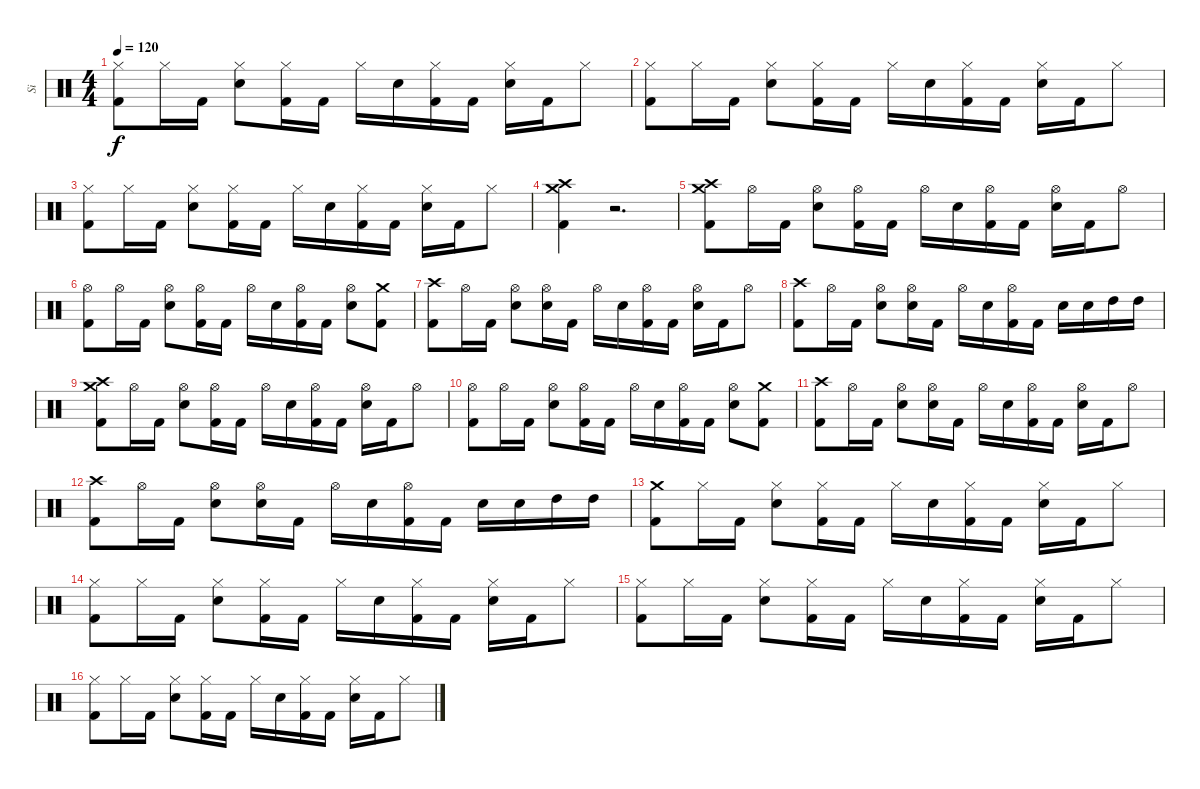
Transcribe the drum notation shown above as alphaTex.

\track ("Si" "Si") {instrument percussion}
\staff {score}
\articulation defaults
\ts (4 4)
\tempo 120
\clef neutral
\ks c
("Hi-Hat (closed)" "Kick (hit) 2").8{dy f} "Hi-Hat (closed)".16 "Kick (hit) 2".16 ("Hi-Hat (closed)" "Electric Snare (hit)").8 ("Hi-Hat (closed)" "Kick (hit) 2").16 "Kick (hit) 2".16 "Hi-Hat (closed)".16 "Electric Snare (hit)".16 ("Hi-Hat (closed)" "Kick (hit) 2").16 "Kick (hit) 2".16 ("Hi-Hat (closed)" "Electric Snare (hit)").16 "Kick (hit) 2".16 "Hi-Hat (closed)".8 |
("Hi-Hat (closed)" "Kick (hit) 2").8 "Hi-Hat (closed)".16 "Kick (hit) 2".16 ("Hi-Hat (closed)" "Electric Snare (hit)").8 ("Hi-Hat (closed)" "Kick (hit) 2").16 "Kick (hit) 2".16 "Hi-Hat (closed)".16 "Electric Snare (hit)".16 ("Hi-Hat (closed)" "Kick (hit) 2").16 "Kick (hit) 2".16 ("Hi-Hat (closed)" "Electric Snare (hit)").16 "Kick (hit) 2".16 "Hi-Hat (closed)".8 |
("Hi-Hat (closed)" "Kick (hit) 2").8 "Hi-Hat (closed)".16 "Kick (hit) 2".16 ("Hi-Hat (closed)" "Electric Snare (hit)").8 ("Hi-Hat (closed)" "Kick (hit) 2").16 "Kick (hit) 2".16 "Hi-Hat (closed)".16 "Electric Snare (hit)".16 ("Hi-Hat (closed)" "Kick (hit) 2").16 "Kick (hit) 2".16 ("Hi-Hat (closed)" "Electric Snare (hit)").16 "Kick (hit) 2".16 "Hi-Hat (closed)".8 |
("Crash high (hit)" "Crash medium (hit)" "Kick (hit) 2").4 r.2{d} |
("Crash high (hit)" "Crash medium (hit)" "Kick (hit) 2").8 "Hi-Hat (open)".16 "Kick (hit) 2".16 ("Hi-Hat (open)" "Electric Snare (hit)").8 ("Hi-Hat (open)" "Kick (hit) 2").16 "Kick (hit) 2".16 "Hi-Hat (open)".16 "Electric Snare (hit)".16 ("Hi-Hat (open)" "Kick (hit) 2").16 "Kick (hit) 2".16 ("Hi-Hat (open)" "Electric Snare (hit)").16 "Kick (hit) 2".16 "Hi-Hat (open)".8 |
("Hi-Hat (open)" "Kick (hit) 2").8 "Hi-Hat (open)".16 "Kick (hit) 2".16 ("Hi-Hat (open)" "Electric Snare (hit)").8 ("Hi-Hat (open)" "Kick (hit) 2").16 "Kick (hit) 2".16 "Hi-Hat (open)".16 "Electric Snare (hit)".16 ("Hi-Hat (open)" "Kick (hit) 2").16 "Kick (hit) 2".16 ("Hi-Hat (open)" "Electric Snare (hit)").8 ("Crash medium (hit)" "Kick (hit) 2").8 |
("Crash high (hit)" "Kick (hit) 2").8 "Hi-Hat (open)".16 "Kick (hit) 2".16 ("Hi-Hat (open)" "Electric Snare (hit)").8 ("Hi-Hat (open)" "Electric Snare (hit)").16 "Kick (hit) 2".16 "Hi-Hat (open)".16 "Electric Snare (hit)".16 ("Hi-Hat (open)" "Kick (hit) 2").16 "Kick (hit) 2".16 ("Hi-Hat (open)" "Electric Snare (hit)").16 "Kick (hit) 2".16 "Hi-Hat (open)".8 |
("Crash high (hit)" "Kick (hit) 2").8 "Hi-Hat (open)".16 "Kick (hit) 2".16 ("Hi-Hat (open)" "Electric Snare (hit)").8 ("Hi-Hat (open)" "Electric Snare (hit)").16 "Kick (hit) 2".16 "Hi-Hat (open)".16 "Electric Snare (hit)".16 ("Hi-Hat (open)" "Kick (hit) 2").16 "Kick (hit) 2".16 "Electric Snare (hit)".16 "Electric Snare (hit)".16 "High Tom (hit)".16 "High Tom (hit)".16 |
("Crash high (hit)" "Crash medium (hit)" "Kick (hit) 2").8 "Hi-Hat (open)".16 "Kick (hit) 2".16 ("Hi-Hat (open)" "Electric Snare (hit)").8 ("Hi-Hat (open)" "Kick (hit) 2").16 "Kick (hit) 2".16 "Hi-Hat (open)".16 "Electric Snare (hit)".16 ("Hi-Hat (open)" "Kick (hit) 2").16 "Kick (hit) 2".16 ("Hi-Hat (open)" "Electric Snare (hit)").16 "Kick (hit) 2".16 "Hi-Hat (open)".8 |
("Hi-Hat (open)" "Kick (hit) 2").8 "Hi-Hat (open)".16 "Kick (hit) 2".16 ("Hi-Hat (open)" "Electric Snare (hit)").8 ("Hi-Hat (open)" "Kick (hit) 2").16 "Kick (hit) 2".16 "Hi-Hat (open)".16 "Electric Snare (hit)".16 ("Hi-Hat (open)" "Kick (hit) 2").16 "Kick (hit) 2".16 ("Hi-Hat (open)" "Electric Snare (hit)").8 ("Crash medium (hit)" "Kick (hit) 2").8 |
("Crash high (hit)" "Kick (hit) 2").8 "Hi-Hat (open)".16 "Kick (hit) 2".16 ("Hi-Hat (open)" "Electric Snare (hit)").8 ("Hi-Hat (open)" "Electric Snare (hit)").16 "Kick (hit) 2".16 "Hi-Hat (open)".16 "Electric Snare (hit)".16 ("Hi-Hat (open)" "Kick (hit) 2").16 "Kick (hit) 2".16 ("Hi-Hat (open)" "Electric Snare (hit)").16 "Kick (hit) 2".16 "Hi-Hat (open)".8 |
("Crash high (hit)" "Kick (hit) 2").8 "Hi-Hat (open)".16 "Kick (hit) 2".16 ("Hi-Hat (open)" "Electric Snare (hit)").8 ("Hi-Hat (open)" "Electric Snare (hit)").16 "Kick (hit) 2".16 "Hi-Hat (open)".16 "Electric Snare (hit)".16 ("Hi-Hat (open)" "Kick (hit) 2").16 "Kick (hit) 2".16 "Electric Snare (hit)".16 "Electric Snare (hit)".16 "High Tom (hit)".16 "High Tom (hit)".16 |
("Crash medium (hit)" "Kick (hit) 2").8 "Hi-Hat (closed)".16 "Kick (hit) 2".16 ("Hi-Hat (closed)" "Electric Snare (hit)").8 ("Hi-Hat (closed)" "Kick (hit) 2").16 "Kick (hit) 2".16 "Hi-Hat (closed)".16 "Electric Snare (hit)".16 ("Hi-Hat (closed)" "Kick (hit) 2").16 "Kick (hit) 2".16 ("Hi-Hat (closed)" "Electric Snare (hit)").16 "Kick (hit) 2".16 "Hi-Hat (closed)".8 |
("Hi-Hat (closed)" "Kick (hit) 2").8 "Hi-Hat (closed)".16 "Kick (hit) 2".16 ("Hi-Hat (closed)" "Electric Snare (hit)").8 ("Hi-Hat (closed)" "Kick (hit) 2").16 "Kick (hit) 2".16 "Hi-Hat (closed)".16 "Electric Snare (hit)".16 ("Hi-Hat (closed)" "Kick (hit) 2").16 "Kick (hit) 2".16 ("Hi-Hat (closed)" "Electric Snare (hit)").16 "Kick (hit) 2".16 "Hi-Hat (closed)".8 |
("Hi-Hat (closed)" "Kick (hit) 2").8 "Hi-Hat (closed)".16 "Kick (hit) 2".16 ("Hi-Hat (closed)" "Electric Snare (hit)").8 ("Hi-Hat (closed)" "Kick (hit) 2").16 "Kick (hit) 2".16 "Hi-Hat (closed)".16 "Electric Snare (hit)".16 ("Hi-Hat (closed)" "Kick (hit) 2").16 "Kick (hit) 2".16 ("Hi-Hat (closed)" "Electric Snare (hit)").16 "Kick (hit) 2".16 "Hi-Hat (closed)".8 |
("Hi-Hat (closed)" "Kick (hit) 2").8 "Hi-Hat (closed)".16 "Kick (hit) 2".16 ("Hi-Hat (closed)" "Electric Snare (hit)").8 ("Hi-Hat (closed)" "Kick (hit) 2").16 "Kick (hit) 2".16 "Hi-Hat (closed)".16 "Electric Snare (hit)".16 ("Hi-Hat (closed)" "Kick (hit) 2").16 "Kick (hit) 2".16 ("Hi-Hat (closed)" "Electric Snare (hit)").16 "Kick (hit) 2".16 "Hi-Hat (closed)".8
